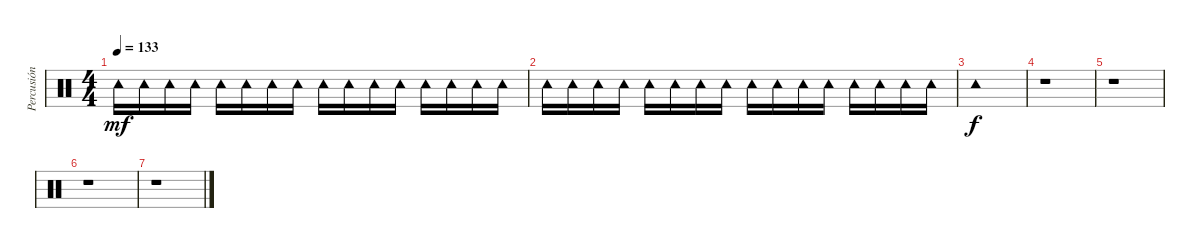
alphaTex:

\track ("Percusión extra" "Percusión ") {instrument percussion}
\staff {score}
\articulation defaults
\ts (4 4)
\tempo 133
\clef neutral
\ks c "Tambourine (hit)".16{dy mf} "Tambourine (hit)".16 "Tambourine (hit)".16 "Tambourine (hit)".16 "Tambourine (hit)".16 "Tambourine (hit)".16 "Tambourine (hit)".16 "Tambourine (hit)".16 "Tambourine (hit)".16 "Tambourine (hit)".16 "Tambourine (hit)".16 "Tambourine (hit)".16 "Tambourine (hit)".16 "Tambourine (hit)".16 "Tambourine (hit)".16 "Tambourine (hit)".16
|
"Tambourine (hit)".16 "Tambourine (hit)".16 "Tambourine (hit)".16 "Tambourine (hit)".16 "Tambourine (hit)".16 "Tambourine (hit)".16 "Tambourine (hit)".16 "Tambourine (hit)".16 "Tambourine (hit)".16 "Tambourine (hit)".16 "Tambourine (hit)".16 "Tambourine (hit)".16 "Tambourine (hit)".16 "Tambourine (hit)".16 "Tambourine (hit)".16 "Tambourine (hit)".16 |
"Tambourine (hit)".1{dy f} |
r.1 |
r.1 |
r.1 |
r.1
